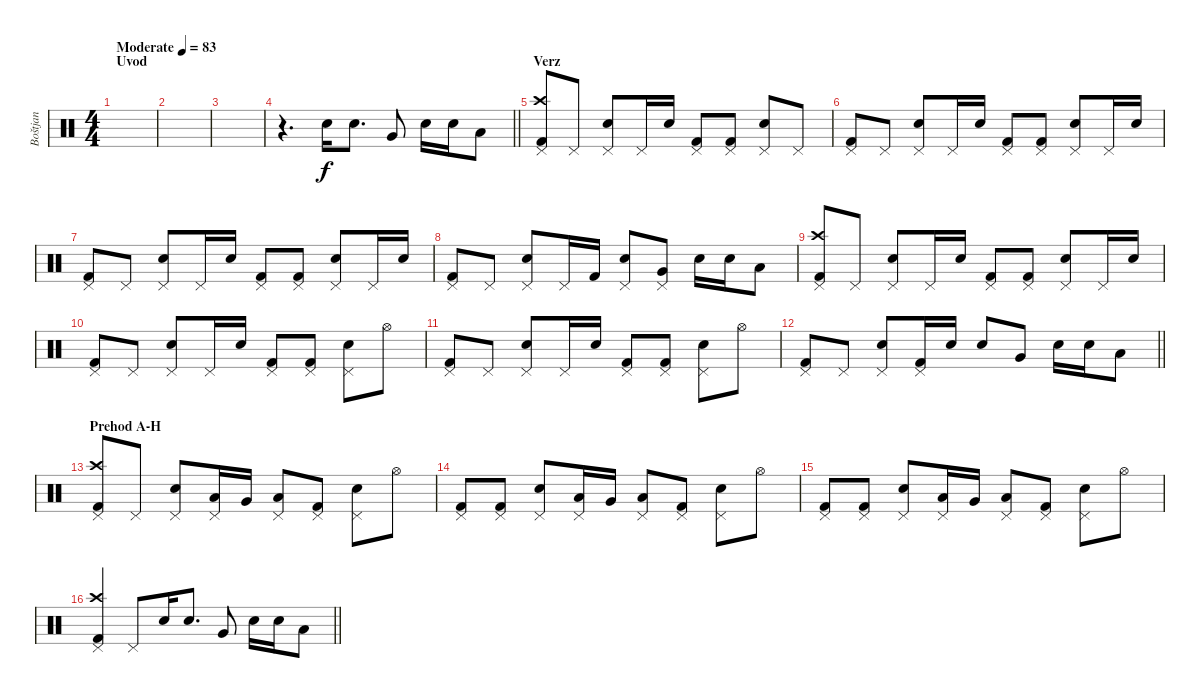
\track ("Boštjan" "Boštjan") {instrument percussion}
\staff {score}
\articulation defaults
\ts (4 4)
\section ("" "Uvod")
\tempo (83 "Moderate")
\clef neutral
\ks c
|
|
|
\barLineRight lightlight
r.4{d} "Snare (hit) 2".16 "Snare (hit) 2".8{d} "Very Low Tom (hit)".8 "Snare (hit) 2".16 "Snare (hit) 2".16 "Low Floor Tom (hit)".8 |
\section ("" "Verz")
("Pedal Hi-Hat (hit)" "Crash high (hit)" "Kick (hit) 2").8 "Pedal Hi-Hat (hit)".8 ("Pedal Hi-Hat (hit)" "Snare (hit) 2").8 "Pedal Hi-Hat (hit)".16 "Snare (hit) 2".16 ("Pedal Hi-Hat (hit)" "Kick (hit) 2").8 ("Pedal Hi-Hat (hit)" "Kick (hit) 2").8 ("Pedal Hi-Hat (hit)" "Snare (hit) 2").8 "Pedal Hi-Hat (hit)".8 |
("Pedal Hi-Hat (hit)" "Kick (hit) 2").8 "Pedal Hi-Hat (hit)".8 ("Pedal Hi-Hat (hit)" "Snare (hit) 2").8 "Pedal Hi-Hat (hit)".16 "Snare (hit) 2".16 ("Pedal Hi-Hat (hit)" "Kick (hit) 2").8 ("Pedal Hi-Hat (hit)" "Kick (hit) 2").8 ("Pedal Hi-Hat (hit)" "Snare (hit) 2").8 "Pedal Hi-Hat (hit)".16 "Snare (hit) 2".16 |
("Pedal Hi-Hat (hit)" "Kick (hit) 2").8 "Pedal Hi-Hat (hit)".8 ("Pedal Hi-Hat (hit)" "Snare (hit) 2").8 "Pedal Hi-Hat (hit)".16 "Snare (hit) 2".16 ("Pedal Hi-Hat (hit)" "Kick (hit) 2").8 ("Pedal Hi-Hat (hit)" "Kick (hit) 2").8 ("Pedal Hi-Hat (hit)" "Snare (hit) 2").8 "Pedal Hi-Hat (hit)".16 "Snare (hit) 2".16 |
("Pedal Hi-Hat (hit)" "Kick (hit) 2").8 "Pedal Hi-Hat (hit)".8 ("Pedal Hi-Hat (hit)" "Snare (hit) 2").8 "Pedal Hi-Hat (hit)".16 "Kick (hit) 2".16 ("Pedal Hi-Hat (hit)" "Snare (hit) 2").8 ("Pedal Hi-Hat (hit)" "Very Low Tom (hit)").8 "Snare (hit) 2".16 "Snare (hit) 2".16 "Low Floor Tom (hit)".8 |
("Pedal Hi-Hat (hit)" "Crash high (hit)" "Kick (hit) 2").8 "Pedal Hi-Hat (hit)".8 ("Pedal Hi-Hat (hit)" "Snare (hit) 2").8 "Pedal Hi-Hat (hit)".16 "Snare (hit) 2".16 ("Pedal Hi-Hat (hit)" "Kick (hit) 2").8 ("Pedal Hi-Hat (hit)" "Kick (hit) 2").8 ("Pedal Hi-Hat (hit)" "Snare (hit) 2").8 "Pedal Hi-Hat (hit)".16 "Snare (hit) 2".16 |
("Pedal Hi-Hat (hit)" "Kick (hit) 2").8 "Pedal Hi-Hat (hit)".8 ("Pedal Hi-Hat (hit)" "Snare (hit) 2").8 "Pedal Hi-Hat (hit)".16 "Snare (hit) 2".16 ("Pedal Hi-Hat (hit)" "Kick (hit) 2").8 ("Pedal Hi-Hat (hit)" "Kick (hit) 2").8 ("Pedal Hi-Hat (hit)" "Snare (hit) 2").8 "Hi-Hat (open)".8 |
("Pedal Hi-Hat (hit)" "Kick (hit) 2").8 "Pedal Hi-Hat (hit)".8 ("Pedal Hi-Hat (hit)" "Snare (hit) 2").8 "Pedal Hi-Hat (hit)".16 "Snare (hit) 2".16 ("Pedal Hi-Hat (hit)" "Kick (hit) 2").8 ("Pedal Hi-Hat (hit)" "Kick (hit) 2").8 ("Pedal Hi-Hat (hit)" "Snare (hit) 2").8 "Hi-Hat (open)".8 |
\barLineRight lightlight
("Pedal Hi-Hat (hit)" "Kick (hit) 2").8 "Pedal Hi-Hat (hit)".8 ("Pedal Hi-Hat (hit)" "Snare (hit) 2").8 ("Pedal Hi-Hat (hit)" "Kick (hit) 2").16 "Snare (hit) 2".16 "Snare (hit) 2".8 "Very Low Tom (hit)".8 "Snare (hit) 2".16 "Snare (hit) 2".16 "Low Floor Tom (hit)".8 |
\section ("" "Prehod A-H")
("Pedal Hi-Hat (hit)" "Crash high (hit)" "Kick (hit) 2").8 "Pedal Hi-Hat (hit)".8 ("Pedal Hi-Hat (hit)" "Snare (hit) 2").8 ("Pedal Hi-Hat (hit)" "Low Tom (hit)").16 "Very Low Tom (hit)".16 ("Pedal Hi-Hat (hit)" "Low Floor Tom (hit)").8 ("Pedal Hi-Hat (hit)" "Kick (hit) 2").8 ("Pedal Hi-Hat (hit)" "Snare (hit) 2").8 "Hi-Hat (open)".8 |
("Pedal Hi-Hat (hit)" "Kick (hit) 2").8 ("Pedal Hi-Hat (hit)" "Kick (hit) 2").8 ("Pedal Hi-Hat (hit)" "Snare (hit) 2").8 ("Pedal Hi-Hat (hit)" "Low Tom (hit)").16 "Very Low Tom (hit)".16 ("Pedal Hi-Hat (hit)" "Low Floor Tom (hit)").8 ("Pedal Hi-Hat (hit)" "Kick (hit) 2").8 ("Pedal Hi-Hat (hit)" "Snare (hit) 2").8 "Hi-Hat (open)".8 |
("Pedal Hi-Hat (hit)" "Kick (hit) 2").8 ("Pedal Hi-Hat (hit)" "Kick (hit) 2").8 ("Pedal Hi-Hat (hit)" "Snare (hit) 2").8 ("Pedal Hi-Hat (hit)" "Low Tom (hit)").16 "Very Low Tom (hit)".16 ("Pedal Hi-Hat (hit)" "Low Floor Tom (hit)").8 ("Pedal Hi-Hat (hit)" "Kick (hit) 2").8 ("Pedal Hi-Hat (hit)" "Snare (hit) 2").8 "Hi-Hat (open)".8 |
\barLineRight lightlight
("Pedal Hi-Hat (hit)" "Crash high (hit)" "Kick (hit) 2").4 "Pedal Hi-Hat (hit)".8 "Snare (hit) 2".16 "Snare (hit) 2".8{d} "Very Low Tom (hit)".8 "Snare (hit) 2".16 "Snare (hit) 2".16 "Low Floor Tom (hit)".8
